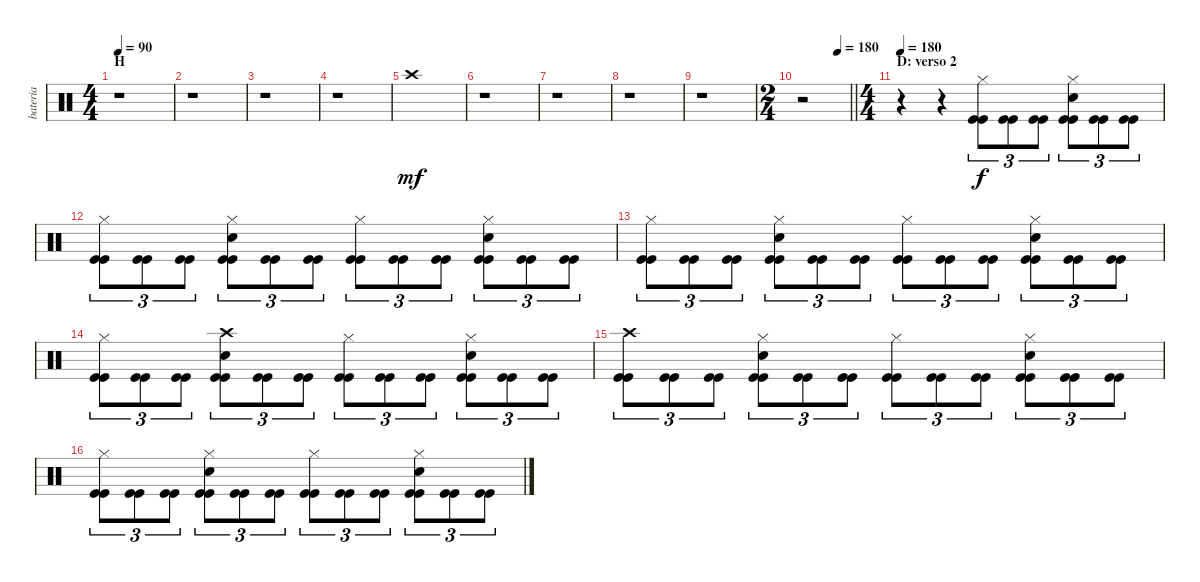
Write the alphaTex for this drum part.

\track ("bateria" "bateria") {instrument percussion}
\staff {score}
\articulation defaults
\ts (4 4)
\section ("" "H")
\tempo 90
\clef neutral
\ks c
r.1{dy f} |
r.1 |
r.1 |
r.1 |
"Crash high (hit)".1{dy mf} |
r.1 |
r.1 |
r.1 |
r.1 |
\ts (2 4)
\tempo (180 0.75)
\barLineRight lightlight
r.2 |
\ts (4 4)
\section ("" "D: verso 2")
\tempo 180
r.4 r.4 ("Hi-Hat (closed)" "Kick (hit)" "Kick (hit)").8{tu (3 2) dy f} ("Kick (hit)" "Kick (hit)").8{tu (3 2)} ("Kick (hit)" "Kick (hit)").8{tu (3 2)} ("Hi-Hat (closed)" "Snare (hit) 2" "Kick (hit)" "Kick (hit)").8{tu (3 2)} ("Kick (hit)" "Kick (hit)").8{tu (3 2)} ("Kick (hit)" "Kick (hit)").8{tu (3 2)} |
("Hi-Hat (closed)" "Kick (hit)" "Kick (hit)").8{tu (3 2)} ("Kick (hit)" "Kick (hit)").8{tu (3 2)} ("Kick (hit)" "Kick (hit)").8{tu (3 2)} ("Hi-Hat (closed)" "Snare (hit) 2" "Kick (hit)" "Kick (hit)").8{tu (3 2)} ("Kick (hit)" "Kick (hit)").8{tu (3 2)} ("Kick (hit)" "Kick (hit)").8{tu (3 2)} ("Hi-Hat (closed)" "Kick (hit)" "Kick (hit)").8{tu (3 2)} ("Kick (hit)" "Kick (hit)").8{tu (3 2)} ("Kick (hit)" "Kick (hit)").8{tu (3 2)} ("Hi-Hat (closed)" "Snare (hit) 2" "Kick (hit)" "Kick (hit)").8{tu (3 2)} ("Kick (hit)" "Kick (hit)").8{tu (3 2)} ("Kick (hit)" "Kick (hit)").8{tu (3 2)} |
("Hi-Hat (closed)" "Kick (hit)" "Kick (hit)").8{tu (3 2)} ("Kick (hit)" "Kick (hit)").8{tu (3 2)} ("Kick (hit)" "Kick (hit)").8{tu (3 2)} ("Hi-Hat (closed)" "Snare (hit) 2" "Kick (hit)" "Kick (hit)").8{tu (3 2)} ("Kick (hit)" "Kick (hit)").8{tu (3 2)} ("Kick (hit)" "Kick (hit)").8{tu (3 2)} ("Hi-Hat (closed)" "Kick (hit)" "Kick (hit)").8{tu (3 2)} ("Kick (hit)" "Kick (hit)").8{tu (3 2)} ("Kick (hit)" "Kick (hit)").8{tu (3 2)} ("Hi-Hat (closed)" "Snare (hit) 2" "Kick (hit)" "Kick (hit)").8{tu (3 2)} ("Kick (hit)" "Kick (hit)").8{tu (3 2)} ("Kick (hit)" "Kick (hit)").8{tu (3 2)} |
("Hi-Hat (closed)" "Kick (hit)" "Kick (hit)").8{tu (3 2)} ("Kick (hit)" "Kick (hit)").8{tu (3 2)} ("Kick (hit)" "Kick (hit)").8{tu (3 2)} ("Crash high (hit)" "Snare (hit) 2" "Kick (hit)" "Kick (hit)").8{tu (3 2)} ("Kick (hit)" "Kick (hit)").8{tu (3 2)} ("Kick (hit)" "Kick (hit)").8{tu (3 2)} ("Hi-Hat (closed)" "Kick (hit)" "Kick (hit)").8{tu (3 2)} ("Kick (hit)" "Kick (hit)").8{tu (3 2)} ("Kick (hit)" "Kick (hit)").8{tu (3 2)} ("Hi-Hat (closed)" "Snare (hit) 2" "Kick (hit)" "Kick (hit)").8{tu (3 2)} ("Kick (hit)" "Kick (hit)").8{tu (3 2)} ("Kick (hit)" "Kick (hit)").8{tu (3 2)} |
("Crash high (hit)" "Kick (hit)" "Kick (hit)").8{tu (3 2)} ("Kick (hit)" "Kick (hit)").8{tu (3 2)} ("Kick (hit)" "Kick (hit)").8{tu (3 2)} ("Hi-Hat (closed)" "Snare (hit) 2" "Kick (hit)" "Kick (hit)").8{tu (3 2)} ("Kick (hit)" "Kick (hit)").8{tu (3 2)} ("Kick (hit)" "Kick (hit)").8{tu (3 2)} ("Hi-Hat (closed)" "Kick (hit)" "Kick (hit)").8{tu (3 2)} ("Kick (hit)" "Kick (hit)").8{tu (3 2)} ("Kick (hit)" "Kick (hit)").8{tu (3 2)} ("Hi-Hat (closed)" "Snare (hit) 2" "Kick (hit)" "Kick (hit)").8{tu (3 2)} ("Kick (hit)" "Kick (hit)").8{tu (3 2)} ("Kick (hit)" "Kick (hit)").8{tu (3 2)} |
("Hi-Hat (closed)" "Kick (hit)" "Kick (hit)").8{tu (3 2)} ("Kick (hit)" "Kick (hit)").8{tu (3 2)} ("Kick (hit)" "Kick (hit)").8{tu (3 2)} ("Hi-Hat (closed)" "Snare (hit) 2" "Kick (hit)" "Kick (hit)").8{tu (3 2)} ("Kick (hit)" "Kick (hit)").8{tu (3 2)} ("Kick (hit)" "Kick (hit)").8{tu (3 2)} ("Hi-Hat (closed)" "Kick (hit)" "Kick (hit)").8{tu (3 2)} ("Kick (hit)" "Kick (hit)").8{tu (3 2)} ("Kick (hit)" "Kick (hit)").8{tu (3 2)} ("Hi-Hat (closed)" "Snare (hit) 2" "Kick (hit)" "Kick (hit)").8{tu (3 2)} ("Kick (hit)" "Kick (hit)").8{tu (3 2)} ("Kick (hit)" "Kick (hit)").8{tu (3 2)}
